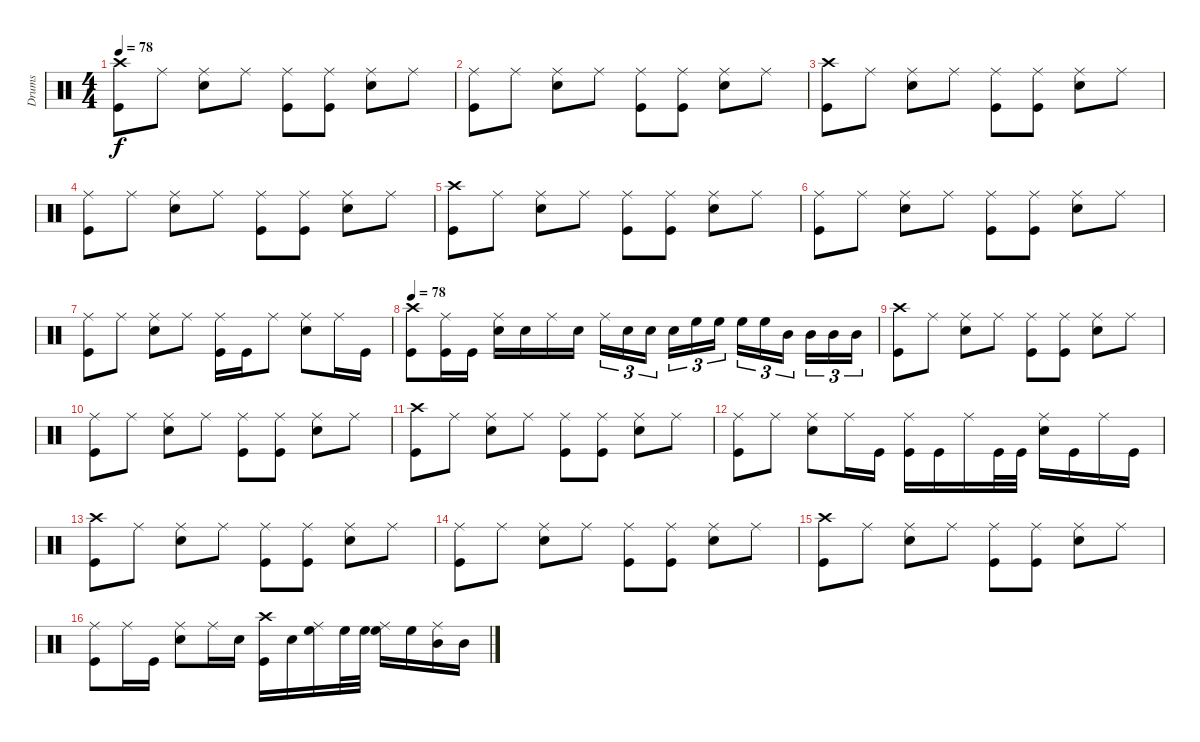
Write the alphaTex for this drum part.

\track ("Drums" "Drums") {instrument percussion}
\staff {score}
\articulation defaults
\ts (4 4)
\tempo 78
\clef neutral
\ks c
("Kick (hit)" "Crash high (hit)").8{dy f} "Ride (middle)".8 ("Snare (hit) 2" "Ride (middle)").8 "Ride (middle)".8 ("Kick (hit)" "Ride (middle)").8 ("Kick (hit)" "Ride (middle)").8 ("Snare (hit) 2" "Ride (middle)").8 "Ride (middle)".8 |
("Kick (hit)" "Ride (middle)").8 "Ride (middle)".8 ("Snare (hit) 2" "Ride (middle)").8 "Ride (middle)".8 ("Kick (hit)" "Ride (middle)").8 ("Kick (hit)" "Ride (middle)").8 ("Snare (hit) 2" "Ride (middle)").8 "Ride (middle)".8 |
("Kick (hit)" "Crash high (hit)").8 "Ride (middle)".8 ("Snare (hit) 2" "Ride (middle)").8 "Ride (middle)".8 ("Kick (hit)" "Ride (middle)").8 ("Kick (hit)" "Ride (middle)").8 ("Snare (hit) 2" "Ride (middle)").8 "Ride (middle)".8 |
("Kick (hit)" "Ride (middle)").8 "Ride (middle)".8 ("Snare (hit) 2" "Ride (middle)").8 "Ride (middle)".8 ("Kick (hit)" "Ride (middle)").8 ("Kick (hit)" "Ride (middle)").8 ("Snare (hit) 2" "Ride (middle)").8 "Ride (middle)".8 |
("Kick (hit)" "Crash high (hit)").8 "Ride (middle)".8 ("Snare (hit) 2" "Ride (middle)").8 "Ride (middle)".8 ("Kick (hit)" "Ride (middle)").8 ("Kick (hit)" "Ride (middle)").8 ("Snare (hit) 2" "Ride (middle)").8 "Ride (middle)".8 |
("Kick (hit)" "Ride (middle)").8 "Ride (middle)".8 ("Snare (hit) 2" "Ride (middle)").8 "Ride (middle)".8 ("Kick (hit)" "Ride (middle)").8 ("Kick (hit)" "Ride (middle)").8 ("Snare (hit) 2" "Ride (middle)").8 "Ride (middle)".8 |
("Kick (hit)" "Ride (middle)").8 "Ride (middle)".8 ("Snare (hit) 2" "Ride (middle)").8 "Ride (middle)".8 ("Kick (hit)" "Ride (middle)").16 "Kick (hit)".16 "Ride (middle)".8 ("Snare (hit) 2" "Ride (middle)").8 "Ride (middle)".16 "Kick (hit)".16 |
\tempo 78
("Kick (hit)" "Crash high (hit)").8 ("Kick (hit)" "Ride (middle)").16 "Kick (hit)".16 ("Snare (hit) 2" "Ride (middle)").16 "Snare (hit) 2".16 "Ride (middle)".16 "Snare (hit) 2".16 "Ride (middle)".16{tu (3 2)} "Snare (hit) 2".16{tu (3 2)} "Snare (hit) 2".16{tu (3 2)} "Snare (hit) 2".16{tu (3 2)} "High Floor Tom (hit)".16{tu (3 2)} "High Floor Tom (hit)".16{tu (3 2)} "High Floor Tom (hit)".16{tu (3 2)} "High Floor Tom (hit)".16{tu (3 2)} "Mid Tom (hit)".16{tu (3 2)} "Mid Tom (hit)".16{tu (3 2)} "Mid Tom (hit)".16{tu (3 2)} "Mid Tom (hit)".16{tu (3 2)} |
("Kick (hit)" "Crash high (hit)").8 "Ride (middle)".8 ("Snare (hit) 2" "Ride (middle)").8 "Ride (middle)".8 ("Kick (hit)" "Ride (middle)").8 ("Kick (hit)" "Ride (middle)").8 ("Snare (hit) 2" "Ride (middle)").8 "Ride (middle)".8 |
("Kick (hit)" "Ride (middle)").8 "Ride (middle)".8 ("Snare (hit) 2" "Ride (middle)").8 "Ride (middle)".8 ("Kick (hit)" "Ride (middle)").8 ("Kick (hit)" "Ride (middle)").8 ("Snare (hit) 2" "Ride (middle)").8 "Ride (middle)".8 |
("Kick (hit)" "Crash high (hit)").8 "Ride (middle)".8 ("Snare (hit) 2" "Ride (middle)").8 "Ride (middle)".8 ("Kick (hit)" "Ride (middle)").8 ("Kick (hit)" "Ride (middle)").8 ("Snare (hit) 2" "Ride (middle)").8 "Ride (middle)".8 |
("Kick (hit)" "Ride (middle)").8 "Ride (middle)".8 ("Snare (hit) 2" "Ride (middle)").8 "Ride (middle)".16 "Kick (hit)".16 ("Kick (hit)" "Ride (middle)").16 "Kick (hit)".16 "Ride (middle)".16 "Kick (hit)".32 "Kick (hit)".32 ("Snare (hit) 2" "Ride (middle)").16 "Kick (hit)".16 "Ride (middle)".16 "Kick (hit)".16 |
("Kick (hit)" "Crash high (hit)").8 "Ride (middle)".8 ("Snare (hit) 2" "Ride (middle)").8 "Ride (middle)".8 ("Kick (hit)" "Ride (middle)").8 ("Kick (hit)" "Ride (middle)").8 ("Snare (hit) 2" "Ride (middle)").8 "Ride (middle)".8 |
("Kick (hit)" "Ride (middle)").8 "Ride (middle)".8 ("Snare (hit) 2" "Ride (middle)").8 "Ride (middle)".8 ("Kick (hit)" "Ride (middle)").8 ("Kick (hit)" "Ride (middle)").8 ("Snare (hit) 2" "Ride (middle)").8 "Ride (middle)".8 |
("Kick (hit)" "Crash high (hit)").8 "Ride (middle)".8 ("Snare (hit) 2" "Ride (middle)").8 "Ride (middle)".8 ("Kick (hit)" "Ride (middle)").8 ("Kick (hit)" "Ride (middle)").8 ("Snare (hit) 2" "Ride (middle)").8 "Ride (middle)".8 |
("Kick (hit)" "Ride (middle)").8 "Ride (middle)".16 "Kick (hit)".16 ("Snare (hit) 2" "Ride (middle)").8 "Ride (middle)".16 "Snare (hit) 2".16 ("Kick (hit)" "Crash high (hit)").16 "Snare (hit) 2".16 ("High Floor Tom (hit)" "Ride (middle)").16 "High Floor Tom (hit)".32 "High Floor Tom (hit)".32 ("High Floor Tom (hit)" "Ride (middle)").16 "High Floor Tom (hit)".16 ("Mid Tom (hit)" "Ride (middle)").16 "Mid Tom (hit)".16
